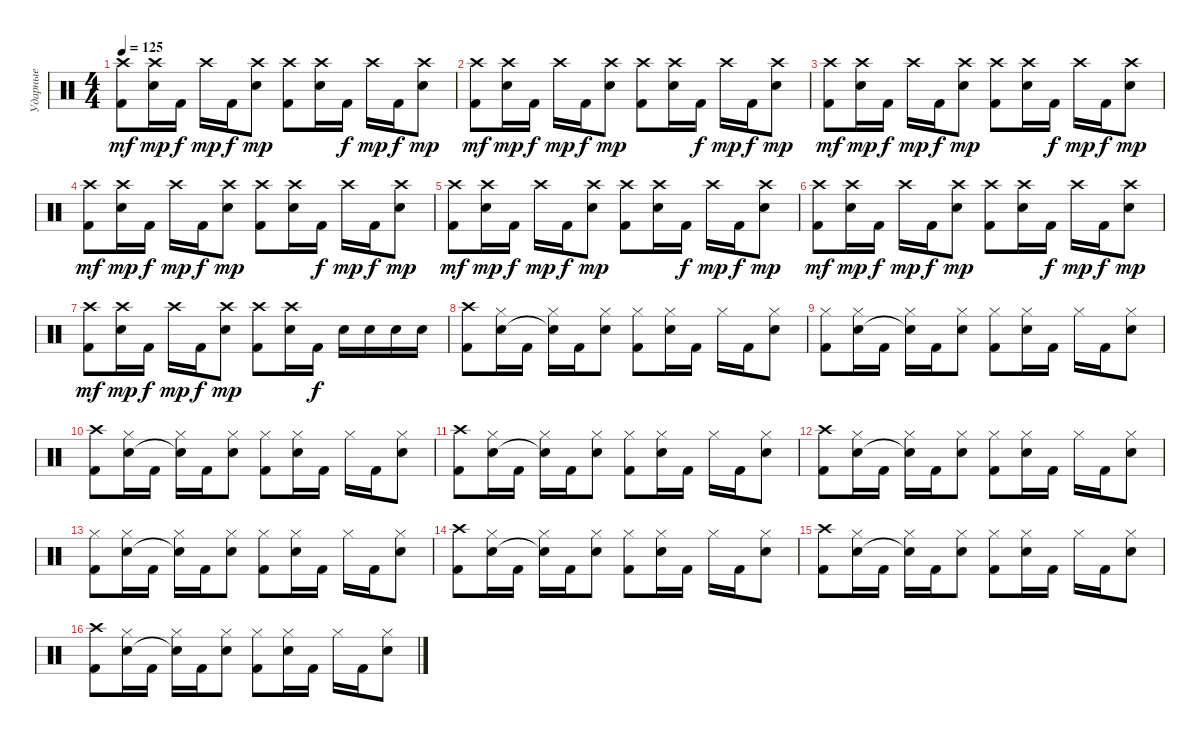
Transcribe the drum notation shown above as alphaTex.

\track ("Ударные" "Ударные") {instrument percussion}
\staff {score}
\articulation defaults
\ts (4 4)
\tempo 125
\clef neutral
\ks c
("Crash high (hit)" "Kick (hit) 2").8{dy mf} ("Crash high (hit)" "Electric Snare (hit)").16{dy mp} "Kick (hit) 2".16{dy f} "Crash high (hit)".16{dy mp} "Kick (hit) 2".16{dy f} ("Crash high (hit)" "Electric Snare (hit)").8{dy mp} ("Crash high (hit)" "Kick (hit) 2").8 ("Crash high (hit)" "Electric Snare (hit)").16 "Kick (hit) 2".16{dy f} "Crash high (hit)".16{dy mp} "Kick (hit) 2".16{dy f} ("Crash high (hit)" "Electric Snare (hit)").8{dy mp} |
("Crash high (hit)" "Kick (hit) 2").8{dy mf} ("Crash high (hit)" "Electric Snare (hit)").16{dy mp} "Kick (hit) 2".16{dy f} "Crash high (hit)".16{dy mp} "Kick (hit) 2".16{dy f} ("Crash high (hit)" "Electric Snare (hit)").8{dy mp} ("Crash high (hit)" "Kick (hit) 2").8 ("Crash high (hit)" "Electric Snare (hit)").16 "Kick (hit) 2".16{dy f} "Crash high (hit)".16{dy mp} "Kick (hit) 2".16{dy f} ("Crash high (hit)" "Electric Snare (hit)").8{dy mp} |
("Crash high (hit)" "Kick (hit) 2").8{dy mf} ("Crash high (hit)" "Electric Snare (hit)").16{dy mp} "Kick (hit) 2".16{dy f} "Crash high (hit)".16{dy mp} "Kick (hit) 2".16{dy f} ("Crash high (hit)" "Electric Snare (hit)").8{dy mp} ("Crash high (hit)" "Kick (hit) 2").8 ("Crash high (hit)" "Electric Snare (hit)").16 "Kick (hit) 2".16{dy f} "Crash high (hit)".16{dy mp} "Kick (hit) 2".16{dy f} ("Crash high (hit)" "Electric Snare (hit)").8{dy mp} |
("Crash high (hit)" "Kick (hit) 2").8{dy mf} ("Crash high (hit)" "Electric Snare (hit)").16{dy mp} "Kick (hit) 2".16{dy f} "Crash high (hit)".16{dy mp} "Kick (hit) 2".16{dy f} ("Crash high (hit)" "Electric Snare (hit)").8{dy mp} ("Crash high (hit)" "Kick (hit) 2").8 ("Crash high (hit)" "Electric Snare (hit)").16 "Kick (hit) 2".16{dy f} "Crash high (hit)".16{dy mp} "Kick (hit) 2".16{dy f} ("Crash high (hit)" "Electric Snare (hit)").8{dy mp} |
("Crash high (hit)" "Kick (hit) 2").8{dy mf} ("Crash high (hit)" "Electric Snare (hit)").16{dy mp} "Kick (hit) 2".16{dy f} "Crash high (hit)".16{dy mp} "Kick (hit) 2".16{dy f} ("Crash high (hit)" "Electric Snare (hit)").8{dy mp} ("Crash high (hit)" "Kick (hit) 2").8 ("Crash high (hit)" "Electric Snare (hit)").16 "Kick (hit) 2".16{dy f} "Crash high (hit)".16{dy mp} "Kick (hit) 2".16{dy f} ("Crash high (hit)" "Electric Snare (hit)").8{dy mp} |
("Crash high (hit)" "Kick (hit) 2").8{dy mf} ("Crash high (hit)" "Electric Snare (hit)").16{dy mp} "Kick (hit) 2".16{dy f} "Crash high (hit)".16{dy mp} "Kick (hit) 2".16{dy f} ("Crash high (hit)" "Electric Snare (hit)").8{dy mp} ("Crash high (hit)" "Kick (hit) 2").8 ("Crash high (hit)" "Electric Snare (hit)").16 "Kick (hit) 2".16{dy f} "Crash high (hit)".16{dy mp} "Kick (hit) 2".16{dy f} ("Crash high (hit)" "Electric Snare (hit)").8{dy mp} |
("Crash high (hit)" "Kick (hit) 2").8{dy mf} ("Crash high (hit)" "Electric Snare (hit)").16{dy mp} "Kick (hit) 2".16{dy f} "Crash high (hit)".16{dy mp} "Kick (hit) 2".16{dy f} ("Crash high (hit)" "Electric Snare (hit)").8{dy mp} ("Crash high (hit)" "Kick (hit) 2").8 ("Crash high (hit)" "Electric Snare (hit)").16 "Kick (hit) 2".16{dy f} "Electric Snare (hit)".16 "Electric Snare (hit)".16 "Electric Snare (hit)".16 "Electric Snare (hit)".16 |
("Crash high (hit)" "Kick (hit) 2").8 ("Hi-Hat (closed)" "Electric Snare (hit)").16 "Kick (hit) 2".16 ("Hi-Hat (closed)" "Snare (hit)"{t}).16 "Kick (hit) 2".16 ("Hi-Hat (closed)" "Electric Snare (hit)").8 ("Hi-Hat (closed)" "Kick (hit) 2").8 ("Hi-Hat (closed)" "Electric Snare (hit)").16 "Kick (hit) 2".16 "Hi-Hat (closed)".16 "Kick (hit) 2".16 ("Hi-Hat (closed)" "Electric Snare (hit)").8 |
("Hi-Hat (closed)" "Kick (hit) 2").8 ("Hi-Hat (closed)" "Electric Snare (hit)").16 "Kick (hit) 2".16 ("Hi-Hat (closed)" "Snare (hit)"{t}).16 "Kick (hit) 2".16 ("Hi-Hat (closed)" "Electric Snare (hit)").8 ("Hi-Hat (closed)" "Kick (hit) 2").8 ("Hi-Hat (closed)" "Electric Snare (hit)").16 "Kick (hit) 2".16 "Hi-Hat (closed)".16 "Kick (hit) 2".16 ("Hi-Hat (closed)" "Electric Snare (hit)").8 |
("Crash high (hit)" "Kick (hit) 2").8 ("Hi-Hat (closed)" "Electric Snare (hit)").16 "Kick (hit) 2".16 ("Hi-Hat (closed)" "Snare (hit)"{t}).16 "Kick (hit) 2".16 ("Hi-Hat (closed)" "Electric Snare (hit)").8 ("Hi-Hat (closed)" "Kick (hit) 2").8 ("Hi-Hat (closed)" "Electric Snare (hit)").16 "Kick (hit) 2".16 "Hi-Hat (closed)".16 "Kick (hit) 2".16 ("Hi-Hat (closed)" "Electric Snare (hit)").8 |
("Crash high (hit)" "Kick (hit) 2").8 ("Hi-Hat (closed)" "Electric Snare (hit)").16 "Kick (hit) 2".16 ("Hi-Hat (closed)" "Snare (hit)"{t}).16 "Kick (hit) 2".16 ("Hi-Hat (closed)" "Electric Snare (hit)").8 ("Hi-Hat (closed)" "Kick (hit) 2").8 ("Hi-Hat (closed)" "Electric Snare (hit)").16 "Kick (hit) 2".16 "Hi-Hat (closed)".16 "Kick (hit) 2".16 ("Hi-Hat (closed)" "Electric Snare (hit)").8 |
("Crash high (hit)" "Kick (hit) 2").8 ("Hi-Hat (closed)" "Electric Snare (hit)").16 "Kick (hit) 2".16 ("Hi-Hat (closed)" "Snare (hit)"{t}).16 "Kick (hit) 2".16 ("Hi-Hat (closed)" "Electric Snare (hit)").8 ("Hi-Hat (closed)" "Kick (hit) 2").8 ("Hi-Hat (closed)" "Electric Snare (hit)").16 "Kick (hit) 2".16 "Hi-Hat (closed)".16 "Kick (hit) 2".16 ("Hi-Hat (closed)" "Electric Snare (hit)").8 |
("Hi-Hat (closed)" "Kick (hit) 2").8 ("Hi-Hat (closed)" "Electric Snare (hit)").16 "Kick (hit) 2".16 ("Hi-Hat (closed)" "Snare (hit)"{t}).16 "Kick (hit) 2".16 ("Hi-Hat (closed)" "Electric Snare (hit)").8 ("Hi-Hat (closed)" "Kick (hit) 2").8 ("Hi-Hat (closed)" "Electric Snare (hit)").16 "Kick (hit) 2".16 "Hi-Hat (closed)".16 "Kick (hit) 2".16 ("Hi-Hat (closed)" "Electric Snare (hit)").8 |
("Crash high (hit)" "Kick (hit) 2").8 ("Hi-Hat (closed)" "Electric Snare (hit)").16 "Kick (hit) 2".16 ("Hi-Hat (closed)" "Snare (hit)"{t}).16 "Kick (hit) 2".16 ("Hi-Hat (closed)" "Electric Snare (hit)").8 ("Hi-Hat (closed)" "Kick (hit) 2").8 ("Hi-Hat (closed)" "Electric Snare (hit)").16 "Kick (hit) 2".16 "Hi-Hat (closed)".16 "Kick (hit) 2".16 ("Hi-Hat (closed)" "Electric Snare (hit)").8 |
("Crash high (hit)" "Kick (hit) 2").8 ("Hi-Hat (closed)" "Electric Snare (hit)").16 "Kick (hit) 2".16 ("Hi-Hat (closed)" "Snare (hit)"{t}).16 "Kick (hit) 2".16 ("Hi-Hat (closed)" "Electric Snare (hit)").8 ("Hi-Hat (closed)" "Kick (hit) 2").8 ("Hi-Hat (closed)" "Electric Snare (hit)").16 "Kick (hit) 2".16 "Hi-Hat (closed)".16 "Kick (hit) 2".16 ("Hi-Hat (closed)" "Electric Snare (hit)").8 |
("Crash high (hit)" "Kick (hit) 2").8 ("Hi-Hat (closed)" "Electric Snare (hit)").16 "Kick (hit) 2".16 ("Hi-Hat (closed)" "Snare (hit)"{t}).16 "Kick (hit) 2".16 ("Hi-Hat (closed)" "Electric Snare (hit)").8 ("Hi-Hat (closed)" "Kick (hit) 2").8 ("Hi-Hat (closed)" "Electric Snare (hit)").16 "Kick (hit) 2".16 "Hi-Hat (closed)".16 "Kick (hit) 2".16 ("Hi-Hat (closed)" "Electric Snare (hit)").8
